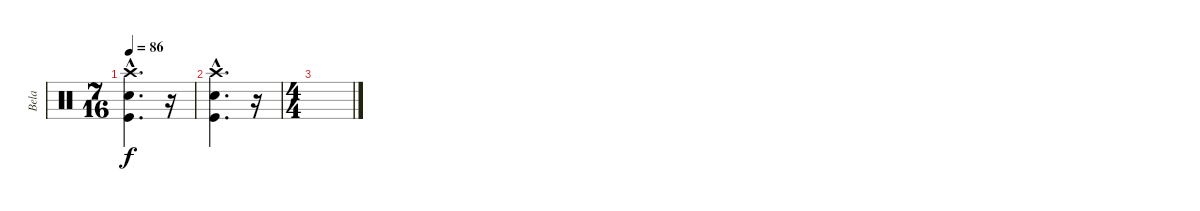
\track ("Bela" "Bela") {instrument percussion}
\staff {score}
\articulation defaults
\ts (7 16)
\tempo 86
\clef neutral
\ks c
("Crash high (hit)"{hac} "Snare (hit) 2"{hac} "Kick (hit)"{hac}).4{d dy f} r.16 |
("Crash high (hit)"{hac} "Snare (hit) 2"{hac} "Kick (hit)"{hac}).4{d} r.16 |
\ts (4 4)
